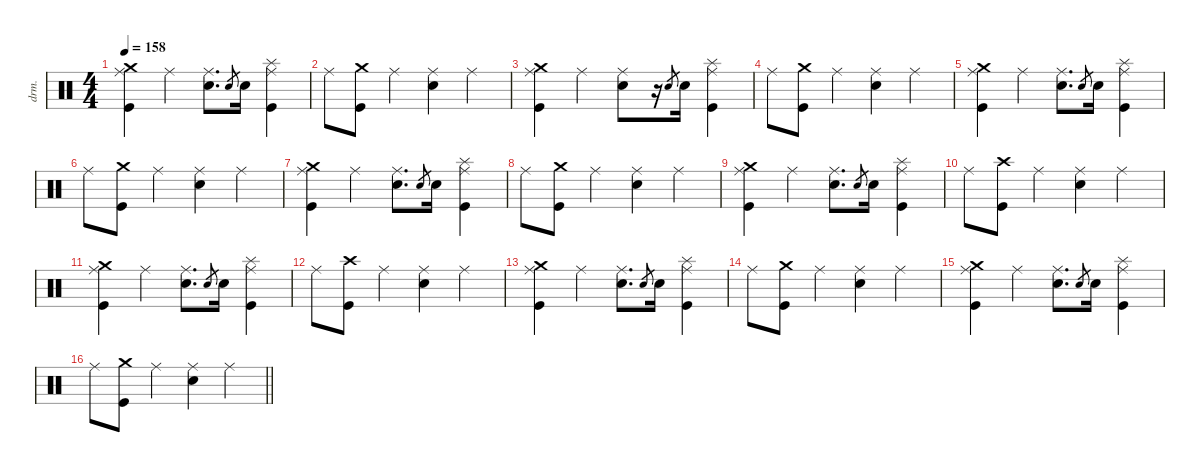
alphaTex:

\defaultSystemsLayout 4
\hideDynamics
\bracketExtendMode groupsimilarinstruments
\otherSystemsTrackNameOrientation horizontal
\track ("Drums" "drm.") {defaultSystemsLayout 4 instrument percussion}
\staff {score}
\articulation defaults
\ts (4 4)
\tempo 158
\clef neutral
\ks aminor
("Crash medium (hit)" "Ride (middle)" "Kick (hit)").4{dy f beam Down} "Ride (middle)".4{beam Down} ("Ride (middle)" "Snare (hit) 2").8{d beam Down} "Electric Snare (hit)".8{gr dy pp beam Up} "Snare (hit) 2".16{dy p beam Down} ("Splash (hit)" "Ride (middle)" "Kick (hit)").4{dy mf beam Down} |
"Ride (middle)".8{dy f beam Down} ("Crash medium (hit)" "Kick (hit)").8{beam Down} "Ride (middle)".4{beam Down} ("Ride (middle)" "Snare (hit) 2").4{beam Down} "Ride (middle)".4{beam Down} |
("Crash medium (hit)" "Ride (middle)" "Kick (hit)").4{beam Down} "Ride (middle)".4{beam Down} ("Ride (middle)" "Snare (hit) 2").8{beam Down} r.16{beam Down} "Electric Snare (hit)".8{gr dy pp beam Up} "Snare (hit) 2".16{dy p beam Down} ("Splash (hit)" "Ride (middle)" "Kick (hit)").4{dy mf beam Down} |
"Ride (middle)".8{dy f beam Down} ("Crash medium (hit)" "Kick (hit)").8{beam Down} "Ride (middle)".4{beam Down} ("Ride (middle)" "Snare (hit) 2").4{beam Down} "Ride (middle)".4{beam Down} |
("Crash medium (hit)" "Ride (middle)" "Kick (hit)").4{beam Down} "Ride (middle)".4{beam Down} ("Ride (middle)" "Snare (hit) 2").8{d beam Down} "Electric Snare (hit)".8{gr dy pp beam Up} "Snare (hit) 2".16{dy p beam Down} ("Splash (hit)" "Ride (middle)" "Kick (hit)").4{dy mf beam Down} |
"Ride (middle)".8{dy f beam Down} ("Crash medium (hit)" "Kick (hit)").8{beam Down} "Ride (middle)".4{beam Down} ("Ride (middle)" "Snare (hit) 2").4{beam Down} "Ride (middle)".4{beam Down} |
("Crash medium (hit)" "Ride (middle)" "Kick (hit)").4{beam Down} "Ride (middle)".4{beam Down} ("Ride (middle)" "Snare (hit) 2").8{d beam Down} "Electric Snare (hit)".8{gr dy pp beam Up} "Snare (hit) 2".16{dy p beam Down} ("Splash (hit)" "Ride (middle)" "Kick (hit)").4{dy mf beam Down} |
"Ride (middle)".8{dy f beam Down} ("Crash medium (hit)" "Kick (hit)").8{beam Down} "Ride (middle)".4{beam Down} ("Ride (middle)" "Snare (hit) 2").4{beam Down} "Ride (middle)".4{beam Down} |
("Crash medium (hit)" "Ride (middle)" "Kick (hit)").4{beam Down} "Ride (middle)".4{beam Down} ("Ride (middle)" "Snare (hit) 2").8{d beam Down} "Electric Snare (hit)".8{gr dy pp beam Up} "Snare (hit) 2".16{dy p beam Down} ("Splash (hit)" "Ride (middle)" "Kick (hit)").4{dy mf beam Down} |
"Ride (middle)".8{dy f beam Down} ("Crash high (hit)" "Kick (hit)").8{dy mf beam Down} "Ride (middle)".4{dy f beam Down} ("Ride (middle)" "Snare (hit) 2").4{beam Down} "Ride (middle)".4{beam Down} |
("Crash medium (hit)" "Ride (middle)" "Kick (hit)").4{beam Down} "Ride (middle)".4{beam Down} ("Ride (middle)" "Snare (hit) 2").8{d beam Down} "Electric Snare (hit)".8{gr dy pp beam Up} "Snare (hit) 2".16{dy p beam Down} ("Splash (hit)" "Ride (middle)" "Kick (hit)").4{dy mf beam Down} |
"Ride (middle)".8{dy f beam Down} ("Crash high (hit)" "Kick (hit)").8{dy mf beam Down} "Ride (middle)".4{dy f beam Down} ("Ride (middle)" "Snare (hit) 2").4{beam Down} "Ride (middle)".4{beam Down} |
("Crash medium (hit)" "Ride (middle)" "Kick (hit)").4{beam Down} "Ride (middle)".4{beam Down} ("Ride (middle)" "Snare (hit) 2").8{d beam Down} "Electric Snare (hit)".8{gr dy pp beam Up} "Snare (hit) 2".16{dy p beam Down} ("Splash (hit)" "Ride (middle)" "Kick (hit)").4{dy mf beam Down} |
"Ride (middle)".8{dy f beam Down} ("Crash medium (hit)" "Kick (hit)").8{beam Down} "Ride (middle)".4{beam Down} ("Ride (middle)" "Snare (hit) 2").4{beam Down} "Ride (middle)".4{beam Down} |
("Crash medium (hit)" "Ride (middle)" "Kick (hit)").4{beam Down} "Ride (middle)".4{beam Down} ("Ride (middle)" "Snare (hit) 2").8{d beam Down} "Electric Snare (hit)".8{gr dy pp beam Up} "Snare (hit) 2".16{dy p beam Down} ("Splash (hit)" "Ride (middle)" "Kick (hit)").4{dy mf beam Down} |
\barLineRight lightlight "Ride (middle)".8{dy f beam Down}
("Crash medium (hit)" "Kick (hit)").8{beam Down} "Ride (middle)".4{beam Down} ("Ride (middle)" "Snare (hit) 2").4{beam Down} "Ride (middle)".4{beam Down}
